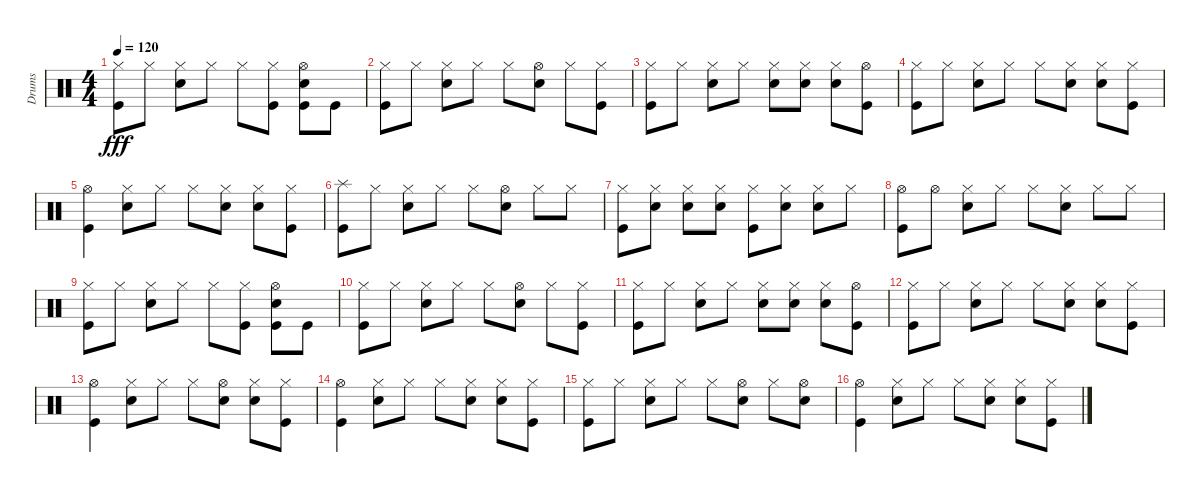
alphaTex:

\track ("Drums" "Drums") {instrument percussion}
\staff {score}
\articulation defaults
\ts (4 4)
\tempo 120
\clef neutral
\ks c
("Hi-Hat (closed)" "Kick (hit)").8{dy fff} "Hi-Hat (closed)".8 ("Hi-Hat (closed)" "Snare (hit) 2").8 "Hi-Hat (closed)".8 "Hi-Hat (closed)".8 ("Hi-Hat (closed)" "Kick (hit)").8 ("Hi-Hat (open)" "Snare (hit) 2" "Kick (hit)").8 "Kick (hit)".8 |
("Hi-Hat (closed)" "Kick (hit)").8 "Hi-Hat (closed)".8 ("Hi-Hat (closed)" "Snare (hit) 2").8 "Hi-Hat (closed)".8 "Hi-Hat (closed)".8 ("Hi-Hat (open)" "Snare (hit) 2").8 "Hi-Hat (closed)".8 ("Hi-Hat (closed)" "Kick (hit)").8 |
("Hi-Hat (closed)" "Kick (hit)").8 "Hi-Hat (closed)".8 ("Hi-Hat (closed)" "Snare (hit) 2").8 "Hi-Hat (closed)".8 ("Hi-Hat (closed)" "Snare (hit) 2").8 ("Hi-Hat (closed)" "Snare (hit) 2").8 ("Hi-Hat (closed)" "Snare (hit) 2").8 ("Hi-Hat (open)" "Kick (hit)").8 |
("Hi-Hat (closed)" "Kick (hit)").8 "Hi-Hat (closed)".8 ("Hi-Hat (closed)" "Snare (hit) 2").8 "Hi-Hat (closed)".8 "Hi-Hat (closed)".8 ("Hi-Hat (closed)" "Snare (hit) 2").8 ("Hi-Hat (closed)" "Snare (hit) 2").8 ("Hi-Hat (closed)" "Kick (hit)").8 |
("Hi-Hat (open)" "Kick (hit)").4 ("Hi-Hat (closed)" "Snare (hit) 2").8 "Hi-Hat (closed)".8 "Hi-Hat (closed)".8 ("Hi-Hat (closed)" "Snare (hit) 2").8 ("Hi-Hat (closed)" "Snare (hit) 2").8 ("Hi-Hat (closed)" "Kick (hit)").8 |
("Splash (hit)" "Kick (hit)").8 "Hi-Hat (closed)".8 ("Hi-Hat (closed)" "Snare (hit) 2").8 "Hi-Hat (closed)".8 "Hi-Hat (closed)".8 ("Hi-Hat (open)" "Snare (hit) 2").8 "Hi-Hat (closed)".8 "Hi-Hat (closed)".8 |
("Hi-Hat (closed)" "Kick (hit)").8 ("Hi-Hat (closed)" "Snare (hit) 2").8 ("Hi-Hat (closed)" "Snare (hit) 2").8 ("Hi-Hat (closed)" "Snare (hit) 2").8 ("Hi-Hat (closed)" "Kick (hit)").8 ("Hi-Hat (closed)" "Snare (hit) 2").8 ("Hi-Hat (closed)" "Snare (hit) 2").8 "Hi-Hat (closed)".8 |
("Hi-Hat (open)" "Kick (hit)").8 "Hi-Hat (open)".8 ("Hi-Hat (closed)" "Snare (hit) 2").8 "Hi-Hat (closed)".8 "Hi-Hat (closed)".8 ("Hi-Hat (closed)" "Snare (hit) 2").8 "Hi-Hat (closed)".8 "Hi-Hat (closed)".8 |
("Hi-Hat (closed)" "Kick (hit)").8 "Hi-Hat (closed)".8 ("Hi-Hat (closed)" "Snare (hit) 2").8 "Hi-Hat (closed)".8 "Hi-Hat (closed)".8 ("Hi-Hat (closed)" "Kick (hit)").8 ("Hi-Hat (open)" "Snare (hit) 2" "Kick (hit)").8 "Kick (hit)".8 |
("Hi-Hat (closed)" "Kick (hit)").8 "Hi-Hat (closed)".8 ("Hi-Hat (closed)" "Snare (hit) 2").8 "Hi-Hat (closed)".8 "Hi-Hat (closed)".8 ("Hi-Hat (open)" "Snare (hit) 2").8 "Hi-Hat (closed)".8 ("Hi-Hat (closed)" "Kick (hit)").8 |
("Hi-Hat (closed)" "Kick (hit)").8 "Hi-Hat (closed)".8 ("Hi-Hat (closed)" "Snare (hit) 2").8 "Hi-Hat (closed)".8 ("Hi-Hat (closed)" "Snare (hit) 2").8 ("Hi-Hat (closed)" "Snare (hit) 2").8 ("Hi-Hat (closed)" "Snare (hit) 2").8 ("Hi-Hat (open)" "Kick (hit)").8 |
("Hi-Hat (closed)" "Kick (hit)").8 "Hi-Hat (closed)".8 ("Hi-Hat (closed)" "Snare (hit) 2").8 "Hi-Hat (closed)".8 "Hi-Hat (closed)".8 ("Hi-Hat (closed)" "Snare (hit) 2").8 ("Hi-Hat (closed)" "Snare (hit) 2").8 ("Hi-Hat (closed)" "Kick (hit)").8 |
("Hi-Hat (open)" "Kick (hit)").4 ("Hi-Hat (closed)" "Snare (hit) 2").8 "Hi-Hat (closed)".8 "Hi-Hat (closed)".8 ("Hi-Hat (open)" "Snare (hit) 2").8 ("Hi-Hat (closed)" "Snare (hit) 2").8 ("Hi-Hat (closed)" "Kick (hit)").8 |
("Hi-Hat (open)" "Kick (hit)").4 ("Hi-Hat (closed)" "Snare (hit) 2").8 "Hi-Hat (closed)".8 "Hi-Hat (closed)".8 ("Hi-Hat (closed)" "Snare (hit) 2").8 ("Hi-Hat (closed)" "Snare (hit) 2").8 ("Hi-Hat (closed)" "Kick (hit)").8 |
("Hi-Hat (closed)" "Kick (hit)").8 "Hi-Hat (closed)".8 ("Hi-Hat (closed)" "Snare (hit) 2").8 "Hi-Hat (closed)".8 "Hi-Hat (closed)".8 ("Hi-Hat (open)" "Snare (hit) 2").8 "Hi-Hat (closed)".8 ("Hi-Hat (open)" "Snare (hit) 2").8 |
("Hi-Hat (open)" "Kick (hit)").4 ("Hi-Hat (closed)" "Snare (hit) 2").8 "Hi-Hat (closed)".8 "Hi-Hat (closed)".8 ("Hi-Hat (closed)" "Snare (hit) 2").8 ("Hi-Hat (closed)" "Snare (hit) 2").8 ("Hi-Hat (closed)" "Kick (hit)").8
